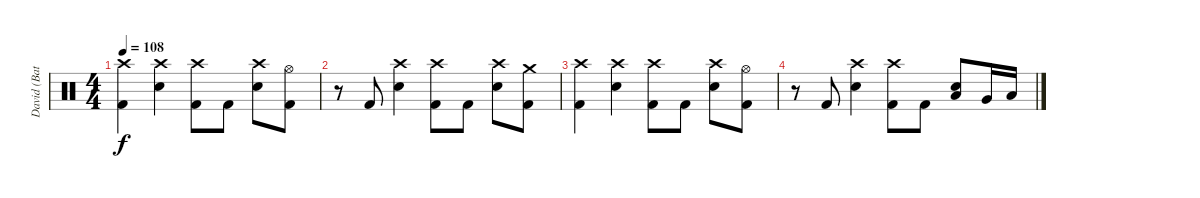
\track ("David (Batterie)" "David (Bat") {instrument percussion}
\staff {score}
\articulation defaults
\ts (4 4)
\tempo 108
\clef neutral
\ks c
("Crash high (hit)" "Kick (hit) 2").4{dy f} ("Crash high (hit)" "Electric Snare (hit)").4 ("Crash high (hit)" "Kick (hit) 2").8 "Kick (hit) 2".8 ("Crash high (hit)" "Electric Snare (hit)").8 ("Hi-Hat (open)" "Kick (hit) 2").8 |
r.8 "Kick (hit) 2".8 ("Crash high (hit)" "Electric Snare (hit)").4 ("Crash high (hit)" "Kick (hit) 2").8 "Kick (hit) 2".8 ("Crash high (hit)" "Electric Snare (hit)").8 ("Crash medium (hit)" "Kick (hit) 2").8 |
("Crash high (hit)" "Kick (hit) 2").4 ("Crash high (hit)" "Electric Snare (hit)").4 ("Crash high (hit)" "Kick (hit) 2").8 "Kick (hit) 2".8 ("Crash high (hit)" "Electric Snare (hit)").8 ("Hi-Hat (open)" "Kick (hit) 2").8 |
r.8 "Kick (hit) 2".8 ("Crash high (hit)" "Electric Snare (hit)").4 ("Crash high (hit)" "Kick (hit) 2").8 "Kick (hit) 2".8 ("Low Tom (hit)" "Electric Snare (hit)").8 "Very Low Tom (hit)".16 "Low Floor Tom (hit)".16
